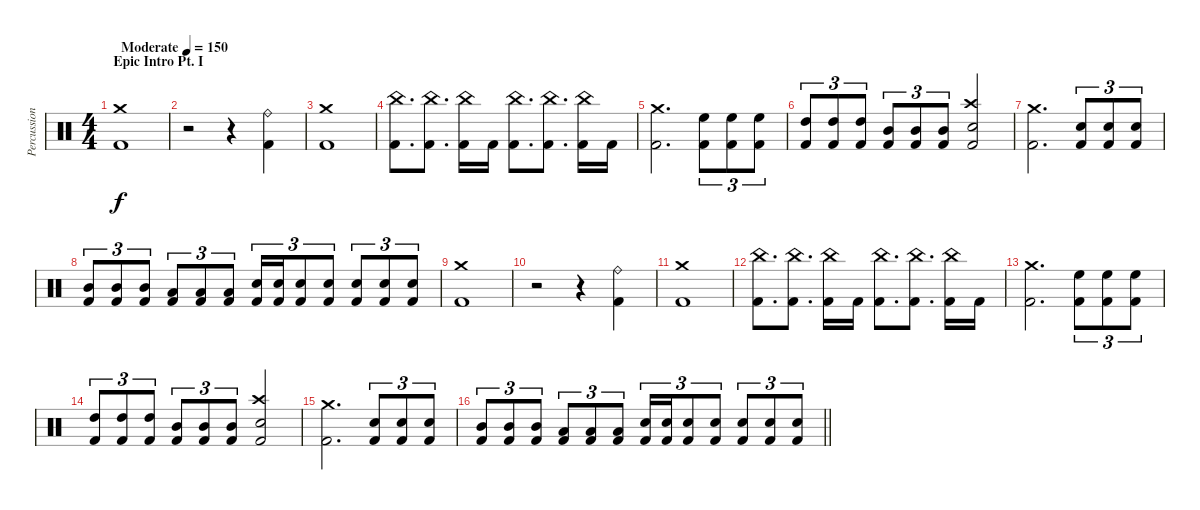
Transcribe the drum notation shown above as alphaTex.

\track ("Percussion" "Percussion") {instrument percussion}
\staff {score}
\articulation defaults
\ts (4 4)
\section ("" "Epic Intro Pt. I")
\tempo (150 "Moderate")
\clef neutral
\ks c
("Crash medium (hit)" "Kick (hit) 2").1{dy f} |
r.2 r.4 ("Ride (bell)" "Kick (hit) 2").4 |
("Crash medium (hit)" "Kick (hit) 2").1 |
("China (hit)" "Kick (hit) 2").8{d} ("China (hit)" "Kick (hit) 2").8{d} ("China (hit)" "Kick (hit) 2").16 "Kick (hit) 2".16 ("China (hit)" "Kick (hit) 2").8{d} ("China (hit)" "Kick (hit) 2").8{d} ("China (hit)" "Kick (hit) 2").16 "Kick (hit) 2".16 |
("Crash medium (hit)" "Kick (hit) 2").2{d} ("High Floor Tom (hit)" "Kick (hit) 2").8{tu (3 2)} ("High Floor Tom (hit)" "Kick (hit) 2").8{tu (3 2)} ("High Floor Tom (hit)" "Kick (hit) 2").8{tu (3 2)} |
("High Tom (hit)" "Kick (hit) 2").8{tu (3 2)} ("High Tom (hit)" "Kick (hit) 2").8{tu (3 2)} ("High Tom (hit)" "Kick (hit) 2").8{tu (3 2)} ("Mid Tom (hit)" "Kick (hit) 2").8{tu (3 2)} ("Mid Tom (hit)" "Kick (hit) 2").8{tu (3 2)} ("Mid Tom (hit)" "Kick (hit) 2").8{tu (3 2)} ("Crash high (hit)" "Electric Snare (hit)" "Kick (hit) 2").2 |
("Crash medium (hit)" "Kick (hit) 2").2{d} ("Electric Snare (hit)" "Kick (hit) 2").8{tu (3 2)} ("Electric Snare (hit)" "Kick (hit) 2").8{tu (3 2)} ("Electric Snare (hit)" "Kick (hit) 2").8{tu (3 2)} |
("Mid Tom (hit)" "Kick (hit) 2").8{tu (3 2)} ("Mid Tom (hit)" "Kick (hit) 2").8{tu (3 2)} ("Mid Tom (hit)" "Kick (hit) 2").8{tu (3 2)} ("Low Tom (hit)" "Kick (hit) 2").8{tu (3 2)} ("Low Tom (hit)" "Kick (hit) 2").8{tu (3 2)} ("Low Tom (hit)" "Kick (hit) 2").8{tu (3 2)} ("Electric Snare (hit)" "Kick (hit) 2").16{tu (3 2)} ("Electric Snare (hit)" "Kick (hit) 2").16{tu (3 2)} ("Electric Snare (hit)" "Kick (hit) 2").8{tu (3 2)} ("Electric Snare (hit)" "Kick (hit) 2").8{tu (3 2)} ("Electric Snare (hit)" "Kick (hit) 2").8{tu (3 2)} ("Electric Snare (hit)" "Kick (hit) 2").8{tu (3 2)} ("Electric Snare (hit)" "Kick (hit) 2").8{tu (3 2)} |
("Crash medium (hit)" "Kick (hit) 2").1 |
r.2 r.4 ("Ride (bell)" "Kick (hit) 2").4 |
("Crash medium (hit)" "Kick (hit) 2").1 |
("China (hit)" "Kick (hit) 2").8{d} ("China (hit)" "Kick (hit) 2").8{d} ("China (hit)" "Kick (hit) 2").16 "Kick (hit) 2".16 ("China (hit)" "Kick (hit) 2").8{d} ("China (hit)" "Kick (hit) 2").8{d} ("China (hit)" "Kick (hit) 2").16 "Kick (hit) 2".16 |
("Crash medium (hit)" "Kick (hit) 2").2{d} ("High Floor Tom (hit)" "Kick (hit) 2").8{tu (3 2)} ("High Floor Tom (hit)" "Kick (hit) 2").8{tu (3 2)} ("High Floor Tom (hit)" "Kick (hit) 2").8{tu (3 2)} |
("High Tom (hit)" "Kick (hit) 2").8{tu (3 2)} ("High Tom (hit)" "Kick (hit) 2").8{tu (3 2)} ("High Tom (hit)" "Kick (hit) 2").8{tu (3 2)} ("Mid Tom (hit)" "Kick (hit) 2").8{tu (3 2)} ("Mid Tom (hit)" "Kick (hit) 2").8{tu (3 2)} ("Mid Tom (hit)" "Kick (hit) 2").8{tu (3 2)} ("Crash high (hit)" "Electric Snare (hit)" "Kick (hit) 2").2 |
("Crash medium (hit)" "Kick (hit) 2").2{d} ("Electric Snare (hit)" "Kick (hit) 2").8{tu (3 2)} ("Electric Snare (hit)" "Kick (hit) 2").8{tu (3 2)} ("Electric Snare (hit)" "Kick (hit) 2").8{tu (3 2)} |
\barLineRight lightlight
("Mid Tom (hit)" "Kick (hit) 2").8{tu (3 2)} ("Mid Tom (hit)" "Kick (hit) 2").8{tu (3 2)} ("Mid Tom (hit)" "Kick (hit) 2").8{tu (3 2)} ("Low Tom (hit)" "Kick (hit) 2").8{tu (3 2)} ("Low Tom (hit)" "Kick (hit) 2").8{tu (3 2)} ("Low Tom (hit)" "Kick (hit) 2").8{tu (3 2)} ("Electric Snare (hit)" "Kick (hit) 2").16{tu (3 2)} ("Electric Snare (hit)" "Kick (hit) 2").16{tu (3 2)} ("Electric Snare (hit)" "Kick (hit) 2").8{tu (3 2)} ("Electric Snare (hit)" "Kick (hit) 2").8{tu (3 2)} ("Electric Snare (hit)" "Kick (hit) 2").8{tu (3 2)} ("Electric Snare (hit)" "Kick (hit) 2").8{tu (3 2)} ("Electric Snare (hit)" "Kick (hit) 2").8{tu (3 2)}
